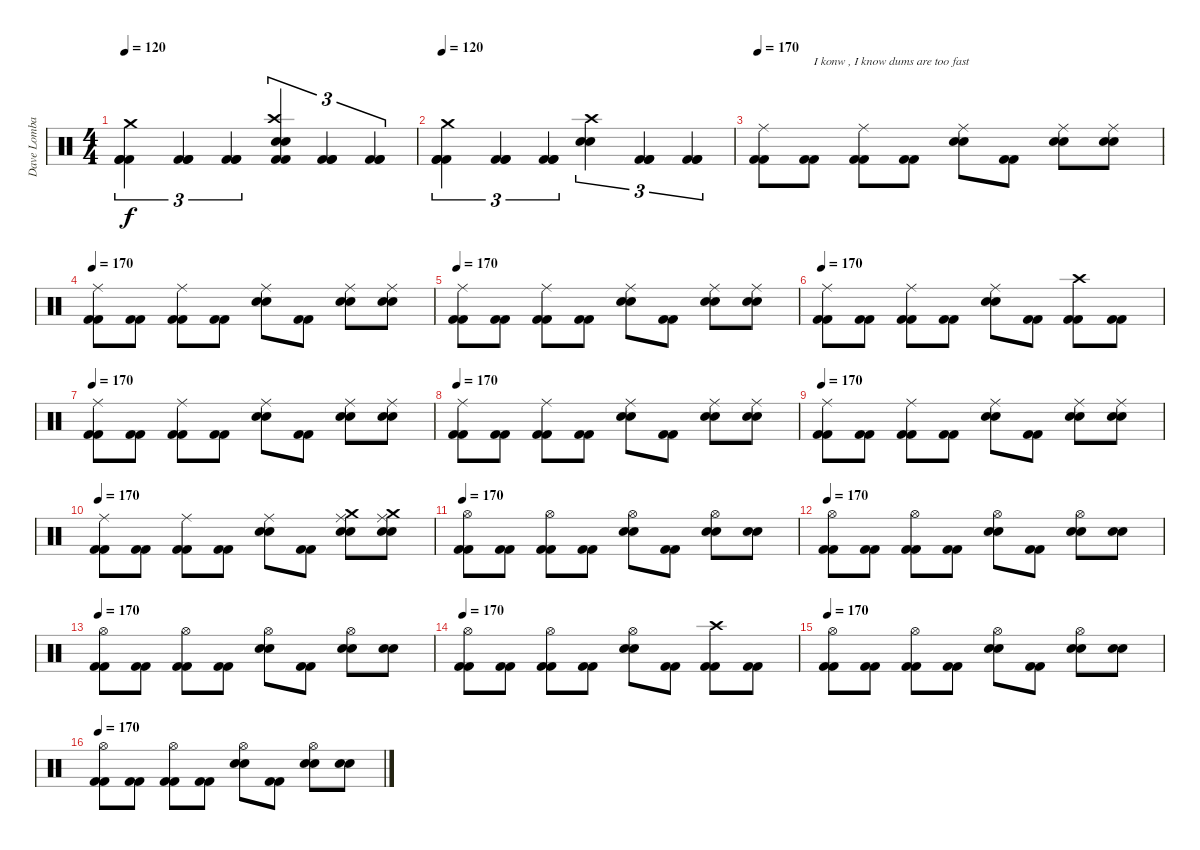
\track ("Dave Lombardo" "Dave Lomba") {instrument percussion}
\staff {score}
\articulation defaults
\ts (4 4)
\tempo 120
\clef neutral
\ks c
("Crash medium (hit)" "Kick (hit) 2" "Kick (hit) 2" "Kick (hit) 2").4{tu (3 2) dy f} ("Kick (hit) 2" "Kick (hit) 2" "Kick (hit) 2").4{tu (3 2)} ("Kick (hit) 2" "Kick (hit) 2" "Kick (hit) 2").4{tu (3 2)} ("Crash high (hit)" "Snare (hit) 2" "Snare (hit) 2" "Kick (hit) 2" "Kick (hit) 2").4{tu (3 2)} ("Kick (hit) 2" "Kick (hit) 2" "Kick (hit) 2").4{tu (3 2)} ("Kick (hit) 2" "Kick (hit) 2" "Kick (hit) 2").4{tu (3 2)} |
\tempo 120
("Crash medium (hit)" "Kick (hit) 2" "Kick (hit) 2" "Kick (hit) 2").4{tu (3 2)} ("Kick (hit) 2" "Kick (hit) 2" "Kick (hit) 2").4{tu (3 2)} ("Kick (hit) 2" "Kick (hit) 2" "Kick (hit) 2").4{tu (3 2)} ("Crash high (hit)" "Snare (hit) 2" "Snare (hit) 2").4{tu (3 2)} ("Kick (hit) 2" "Kick (hit) 2" "Kick (hit) 2").4{tu (3 2)} ("Kick (hit) 2" "Kick (hit) 2" "Kick (hit) 2").4{tu (3 2)} |
\tempo 170
("Ride (middle)" "Kick (hit) 2" "Kick (hit) 2").8 ("Kick (hit) 2" "Kick (hit) 2").8{txt "I konw , I know dums are too fast"} ("Ride (middle)" "Kick (hit) 2" "Kick (hit) 2").8 ("Kick (hit) 2" "Kick (hit) 2").8 ("Ride (middle)" "Snare (hit) 2" "Snare (hit) 2").8 ("Kick (hit) 2" "Kick (hit) 2").8 ("Ride (middle)" "Snare (hit) 2" "Snare (hit) 2").8 ("Ride (middle)" "Snare (hit) 2" "Snare (hit) 2").8 |
\tempo 170
("Ride (middle)" "Kick (hit) 2" "Kick (hit) 2").8 ("Kick (hit) 2" "Kick (hit) 2").8 ("Ride (middle)" "Kick (hit) 2" "Kick (hit) 2").8 ("Kick (hit) 2" "Kick (hit) 2").8 ("Ride (middle)" "Snare (hit) 2" "Snare (hit) 2").8 ("Kick (hit) 2" "Kick (hit) 2").8 ("Ride (middle)" "Snare (hit) 2" "Snare (hit) 2").8 ("Ride (middle)" "Snare (hit) 2" "Snare (hit) 2").8 |
\tempo 170
("Ride (middle)" "Kick (hit) 2" "Kick (hit) 2").8 ("Kick (hit) 2" "Kick (hit) 2").8 ("Ride (middle)" "Kick (hit) 2" "Kick (hit) 2").8 ("Kick (hit) 2" "Kick (hit) 2").8 ("Ride (middle)" "Snare (hit) 2" "Snare (hit) 2").8 ("Kick (hit) 2" "Kick (hit) 2").8 ("Ride (middle)" "Snare (hit) 2" "Snare (hit) 2").8 ("Ride (middle)" "Snare (hit) 2" "Snare (hit) 2").8 |
\tempo 170
("Ride (middle)" "Kick (hit) 2" "Kick (hit) 2").8 ("Kick (hit) 2" "Kick (hit) 2").8 ("Ride (middle)" "Kick (hit) 2" "Kick (hit) 2").8 ("Kick (hit) 2" "Kick (hit) 2").8 ("Ride (middle)" "Snare (hit) 2" "Snare (hit) 2").8 ("Kick (hit) 2" "Kick (hit) 2").8 ("Crash high (hit)" "Kick (hit) 2" "Kick (hit) 2").8 ("Kick (hit) 2" "Kick (hit) 2").8 |
\tempo 170
("Ride (middle)" "Kick (hit) 2" "Kick (hit) 2").8 ("Kick (hit) 2" "Kick (hit) 2").8 ("Ride (middle)" "Kick (hit) 2" "Kick (hit) 2").8 ("Kick (hit) 2" "Kick (hit) 2").8 ("Ride (middle)" "Snare (hit) 2" "Snare (hit) 2").8 ("Kick (hit) 2" "Kick (hit) 2").8 ("Ride (middle)" "Snare (hit) 2" "Snare (hit) 2").8 ("Ride (middle)" "Snare (hit) 2" "Snare (hit) 2").8 |
\tempo 170
("Ride (middle)" "Kick (hit) 2" "Kick (hit) 2").8 ("Kick (hit) 2" "Kick (hit) 2").8 ("Ride (middle)" "Kick (hit) 2" "Kick (hit) 2").8 ("Kick (hit) 2" "Kick (hit) 2").8 ("Ride (middle)" "Snare (hit) 2" "Snare (hit) 2").8 ("Kick (hit) 2" "Kick (hit) 2").8 ("Ride (middle)" "Snare (hit) 2" "Snare (hit) 2").8 ("Ride (middle)" "Snare (hit) 2" "Snare (hit) 2").8 |
\tempo 170
("Ride (middle)" "Kick (hit) 2" "Kick (hit) 2").8 ("Kick (hit) 2" "Kick (hit) 2").8 ("Ride (middle)" "Kick (hit) 2" "Kick (hit) 2").8 ("Kick (hit) 2" "Kick (hit) 2").8 ("Ride (middle)" "Snare (hit) 2" "Snare (hit) 2").8 ("Kick (hit) 2" "Kick (hit) 2").8 ("Ride (middle)" "Snare (hit) 2" "Snare (hit) 2").8 ("Ride (middle)" "Snare (hit) 2" "Snare (hit) 2").8 |
\tempo 170
("Ride (middle)" "Kick (hit) 2" "Kick (hit) 2").8 ("Kick (hit) 2" "Kick (hit) 2").8 ("Ride (middle)" "Kick (hit) 2" "Kick (hit) 2").8 ("Kick (hit) 2" "Kick (hit) 2").8 ("Ride (middle)" "Snare (hit) 2" "Snare (hit) 2").8 ("Kick (hit) 2" "Kick (hit) 2").8 ("Crash medium (hit)" "Ride (middle)" "Snare (hit) 2" "Snare (hit) 2").8 ("Crash medium (hit)" "Ride (middle)" "Snare (hit) 2" "Snare (hit) 2").8 |
\tempo 170
("Hi-Hat (open)" "Kick (hit) 2" "Kick (hit) 2").8 ("Kick (hit) 2" "Kick (hit) 2").8 ("Hi-Hat (open)" "Kick (hit) 2" "Kick (hit) 2").8 ("Kick (hit) 2" "Kick (hit) 2").8 ("Hi-Hat (open)" "Snare (hit) 2" "Snare (hit) 2").8 ("Kick (hit) 2" "Kick (hit) 2").8 ("Hi-Hat (open)" "Snare (hit) 2" "Snare (hit) 2").8 ("Snare (hit) 2" "Snare (hit) 2").8 |
\tempo 170
("Hi-Hat (open)" "Kick (hit) 2" "Kick (hit) 2").8 ("Kick (hit) 2" "Kick (hit) 2").8 ("Hi-Hat (open)" "Kick (hit) 2" "Kick (hit) 2").8 ("Kick (hit) 2" "Kick (hit) 2").8 ("Hi-Hat (open)" "Snare (hit) 2" "Snare (hit) 2").8 ("Kick (hit) 2" "Kick (hit) 2").8 ("Hi-Hat (open)" "Snare (hit) 2" "Snare (hit) 2").8 ("Snare (hit) 2" "Snare (hit) 2").8 |
\tempo 170
("Hi-Hat (open)" "Kick (hit) 2" "Kick (hit) 2").8 ("Kick (hit) 2" "Kick (hit) 2").8 ("Hi-Hat (open)" "Kick (hit) 2" "Kick (hit) 2").8 ("Kick (hit) 2" "Kick (hit) 2").8 ("Hi-Hat (open)" "Snare (hit) 2" "Snare (hit) 2").8 ("Kick (hit) 2" "Kick (hit) 2").8 ("Hi-Hat (open)" "Snare (hit) 2" "Snare (hit) 2").8 ("Snare (hit) 2" "Snare (hit) 2").8 |
\tempo 170
("Hi-Hat (open)" "Kick (hit) 2" "Kick (hit) 2").8 ("Kick (hit) 2" "Kick (hit) 2").8 ("Hi-Hat (open)" "Kick (hit) 2" "Kick (hit) 2").8 ("Kick (hit) 2" "Kick (hit) 2").8 ("Hi-Hat (open)" "Snare (hit) 2" "Snare (hit) 2").8 ("Kick (hit) 2" "Kick (hit) 2").8 ("Crash high (hit)" "Kick (hit) 2" "Kick (hit) 2").8 ("Kick (hit) 2" "Kick (hit) 2").8 |
\tempo 170
("Hi-Hat (open)" "Kick (hit) 2" "Kick (hit) 2").8 ("Kick (hit) 2" "Kick (hit) 2").8 ("Hi-Hat (open)" "Kick (hit) 2" "Kick (hit) 2").8 ("Kick (hit) 2" "Kick (hit) 2").8 ("Hi-Hat (open)" "Snare (hit) 2" "Snare (hit) 2").8 ("Kick (hit) 2" "Kick (hit) 2").8 ("Hi-Hat (open)" "Snare (hit) 2" "Snare (hit) 2").8 ("Snare (hit) 2" "Snare (hit) 2").8 |
\tempo 170
("Hi-Hat (open)" "Kick (hit) 2" "Kick (hit) 2").8 ("Kick (hit) 2" "Kick (hit) 2").8 ("Hi-Hat (open)" "Kick (hit) 2" "Kick (hit) 2").8 ("Kick (hit) 2" "Kick (hit) 2").8 ("Hi-Hat (open)" "Snare (hit) 2" "Snare (hit) 2").8 ("Kick (hit) 2" "Kick (hit) 2").8 ("Hi-Hat (open)" "Snare (hit) 2" "Snare (hit) 2").8 ("Snare (hit) 2" "Snare (hit) 2").8
